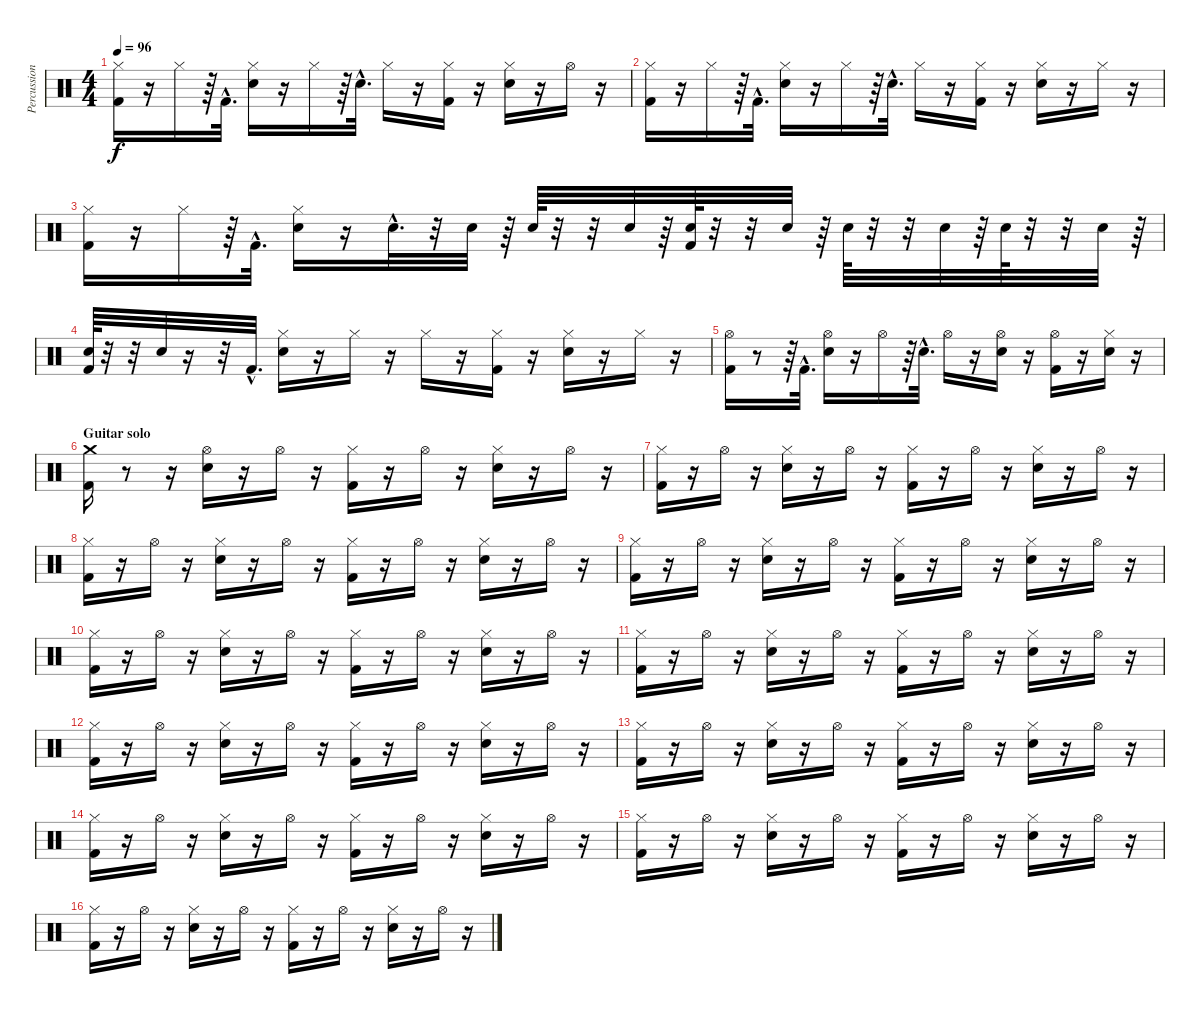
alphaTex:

\track ("Percussion" "Percussion") {instrument percussion}
\staff {score}
\articulation defaults
\ts (4 4)
\tempo 96
\clef neutral
\ks c
("Kick (hit) 2" "Hi-Hat (closed)").16{dy f} r.16 "Hi-Hat (closed)".16 r.64 "Kick (hit) 2"{hac}.32{d} ("Hi-Hat (closed)" "Electric Snare (hit)").16 r.16 "Hi-Hat (closed)".16 r.64 "Electric Snare (hit)"{hac}.32{d} "Hi-Hat (closed)".16 r.16 ("Hi-Hat (closed)" "Kick (hit) 2").16 r.16 ("Hi-Hat (closed)" "Electric Snare (hit)").16 r.16 "Hi-Hat (open)".16 r.16 |
("Kick (hit) 2" "Hi-Hat (closed)").16 r.16 "Hi-Hat (closed)".16 r.64 "Kick (hit) 2"{hac}.32{d} ("Hi-Hat (closed)" "Electric Snare (hit)").16 r.16 "Hi-Hat (closed)".16 r.64 "Electric Snare (hit)"{hac}.32{d} "Hi-Hat (closed)".16 r.16 ("Hi-Hat (closed)" "Kick (hit) 2").16 r.16 ("Hi-Hat (closed)" "Electric Snare (hit)").16 r.16 "Hi-Hat (closed)".16 r.16 |
("Kick (hit) 2" "Hi-Hat (closed)").16 r.16 "Hi-Hat (closed)".16 r.64 "Kick (hit) 2"{hac}.32{d} ("Hi-Hat (closed)" "Electric Snare (hit)").16 r.16 "Electric Snare (hit)"{hac}.32{d} r.32 "Electric Snare (hit)".32 r.64 "Electric Snare (hit)".64 r.32 r.32 "Electric Snare (hit)".32 r.64 ("Electric Snare (hit)" "Kick (hit) 2").64 r.32 r.32 "Electric Snare (hit)".32 r.64 "Electric Snare (hit)".64 r.32 r.32 "Electric Snare (hit)".32 r.64 "Electric Snare (hit)".64 r.32 r.32 "Electric Snare (hit)".32 r.64 |
("Electric Snare (hit)" "Kick (hit) 2").64 r.32 r.32 "Electric Snare (hit)".32 r.16 r.32 "Kick (hit) 2"{hac}.32{d} ("Hi-Hat (closed)" "Electric Snare (hit)").16 r.16 "Hi-Hat (closed)".16 r.16 "Hi-Hat (closed)".16 r.16 ("Hi-Hat (closed)" "Kick (hit) 2").16 r.16 ("Hi-Hat (closed)" "Electric Snare (hit)").16 r.16 "Hi-Hat (closed)".16 r.16 |
("Kick (hit) 2" "Hi-Hat (open)").16 r.8 r.64 "Kick (hit) 2"{hac}.32{d} ("Hi-Hat (open)" "Electric Snare (hit)").16 r.16 "Hi-Hat (open)".16 r.64 "Electric Snare (hit)"{hac}.32{d} "Hi-Hat (open)".16 r.16 ("Hi-Hat (open)" "Electric Snare (hit)").16 r.16 ("Kick (hit) 2" "Hi-Hat (open)").16 r.16 ("Electric Snare (hit)" "Hi-Hat (closed)").16 r.16 |
\section ("" "Guitar solo")
("Crash medium (hit)" "Kick (hit) 2").16 r.8 r.16 ("Hi-Hat (open)" "Electric Snare (hit)").16 r.16 "Hi-Hat (open)".16 r.16 ("Kick (hit) 2" "Hi-Hat (closed)").16 r.16 "Hi-Hat (open)".16 r.16 ("Electric Snare (hit)" "Hi-Hat (closed)").16 r.16 "Hi-Hat (open)".16 r.16 |
("Hi-Hat (closed)" "Kick (hit) 2").16 r.16 "Hi-Hat (open)".16 r.16 ("Hi-Hat (closed)" "Electric Snare (hit)").16 r.16 "Hi-Hat (open)".16 r.16 ("Kick (hit) 2" "Hi-Hat (closed)").16 r.16 "Hi-Hat (open)".16 r.16 ("Electric Snare (hit)" "Hi-Hat (closed)").16 r.16 "Hi-Hat (open)".16 r.16 |
("Hi-Hat (closed)" "Kick (hit) 2").16 r.16 "Hi-Hat (open)".16 r.16 ("Hi-Hat (closed)" "Electric Snare (hit)").16 r.16 "Hi-Hat (open)".16 r.16 ("Kick (hit) 2" "Hi-Hat (closed)").16 r.16 "Hi-Hat (open)".16 r.16 ("Electric Snare (hit)" "Hi-Hat (closed)").16 r.16 "Hi-Hat (open)".16 r.16 |
("Hi-Hat (closed)" "Kick (hit) 2").16 r.16 "Hi-Hat (open)".16 r.16 ("Hi-Hat (closed)" "Electric Snare (hit)").16 r.16 "Hi-Hat (open)".16 r.16 ("Kick (hit) 2" "Hi-Hat (closed)").16 r.16 "Hi-Hat (open)".16 r.16 ("Electric Snare (hit)" "Hi-Hat (closed)").16 r.16 "Hi-Hat (open)".16 r.16 |
("Hi-Hat (closed)" "Kick (hit) 2").16 r.16 "Hi-Hat (open)".16 r.16 ("Hi-Hat (closed)" "Electric Snare (hit)").16 r.16 "Hi-Hat (open)".16 r.16 ("Kick (hit) 2" "Hi-Hat (closed)").16 r.16 "Hi-Hat (open)".16 r.16 ("Electric Snare (hit)" "Hi-Hat (closed)").16 r.16 "Hi-Hat (open)".16 r.16 |
("Hi-Hat (closed)" "Kick (hit) 2").16 r.16 "Hi-Hat (open)".16 r.16 ("Hi-Hat (closed)" "Electric Snare (hit)").16 r.16 "Hi-Hat (open)".16 r.16 ("Kick (hit) 2" "Hi-Hat (closed)").16 r.16 "Hi-Hat (open)".16 r.16 ("Electric Snare (hit)" "Hi-Hat (closed)").16 r.16 "Hi-Hat (open)".16 r.16 |
("Hi-Hat (closed)" "Kick (hit) 2").16 r.16 "Hi-Hat (open)".16 r.16 ("Hi-Hat (closed)" "Electric Snare (hit)").16 r.16 "Hi-Hat (open)".16 r.16 ("Kick (hit) 2" "Hi-Hat (closed)").16 r.16 "Hi-Hat (open)".16 r.16 ("Electric Snare (hit)" "Hi-Hat (closed)").16 r.16 "Hi-Hat (open)".16 r.16 |
("Hi-Hat (closed)" "Kick (hit) 2").16 r.16 "Hi-Hat (open)".16 r.16 ("Hi-Hat (closed)" "Electric Snare (hit)").16 r.16 "Hi-Hat (open)".16 r.16 ("Kick (hit) 2" "Hi-Hat (closed)").16 r.16 "Hi-Hat (open)".16 r.16 ("Electric Snare (hit)" "Hi-Hat (closed)").16 r.16 "Hi-Hat (open)".16 r.16 |
("Hi-Hat (closed)" "Kick (hit) 2").16 r.16 "Hi-Hat (open)".16 r.16 ("Hi-Hat (closed)" "Electric Snare (hit)").16 r.16 "Hi-Hat (open)".16 r.16 ("Kick (hit) 2" "Hi-Hat (closed)").16 r.16 "Hi-Hat (open)".16 r.16 ("Electric Snare (hit)" "Hi-Hat (closed)").16 r.16 "Hi-Hat (open)".16 r.16 |
("Hi-Hat (closed)" "Kick (hit) 2").16 r.16 "Hi-Hat (open)".16 r.16 ("Hi-Hat (closed)" "Electric Snare (hit)").16 r.16 "Hi-Hat (open)".16 r.16 ("Kick (hit) 2" "Hi-Hat (closed)").16 r.16 "Hi-Hat (open)".16 r.16 ("Electric Snare (hit)" "Hi-Hat (closed)").16 r.16 "Hi-Hat (open)".16 r.16 |
("Hi-Hat (closed)" "Kick (hit) 2").16 r.16 "Hi-Hat (open)".16 r.16 ("Hi-Hat (closed)" "Electric Snare (hit)").16 r.16 "Hi-Hat (open)".16 r.16 ("Kick (hit) 2" "Hi-Hat (closed)").16 r.16 "Hi-Hat (open)".16 r.16 ("Electric Snare (hit)" "Hi-Hat (closed)").16 r.16 "Hi-Hat (open)".16 r.16
